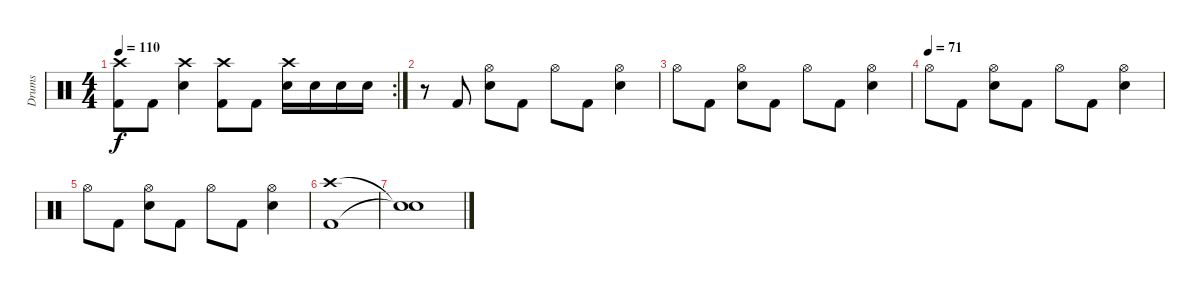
\track ("Drums" "Drums") {instrument percussion}
\staff {score}
\articulation defaults
\rc 2
\ts (4 4)
\tempo 110
\clef neutral
\ks c
("Kick (hit) 2" "Crash high (hit)").8{dy f} "Kick (hit) 2".8 ("Crash high (hit)" "Snare (hit) 2").4 ("Kick (hit) 2" "Crash high (hit)").8 "Kick (hit) 2".8 ("Crash high (hit)" "Snare (hit) 2").16 "Snare (hit) 2".16 "Snare (hit) 2".16 "Snare (hit) 2".16 |
r.8 "Kick (hit) 2".8 ("Hi-Hat (open)" "Snare (hit) 2").8 "Kick (hit) 2".8 "Hi-Hat (open)".8 "Kick (hit) 2".8 ("Hi-Hat (open)" "Snare (hit) 2").4 |
"Hi-Hat (open)".8 "Kick (hit) 2".8 ("Hi-Hat (open)" "Snare (hit) 2").8 "Kick (hit) 2".8 "Hi-Hat (open)".8 "Kick (hit) 2".8 ("Hi-Hat (open)" "Snare (hit) 2").4 |
\tempo (71)
"Hi-Hat (open)".8 "Kick (hit) 2".8 ("Hi-Hat (open)" "Snare (hit) 2").8 "Kick (hit) 2".8 "Hi-Hat (open)".8 "Kick (hit) 2".8 ("Hi-Hat (open)" "Snare (hit) 2").4 |
"Hi-Hat (open)".8 "Kick (hit) 2".8 ("Hi-Hat (open)" "Snare (hit) 2").8 "Kick (hit) 2".8 "Hi-Hat (open)".8 "Kick (hit) 2".8 ("Hi-Hat (open)" "Snare (hit) 2").4 |
("Kick (hit) 2" "Crash high (hit)").1{volume 0} |
("Snare (hit)"{t} "Snare (hit)"{t}).1
